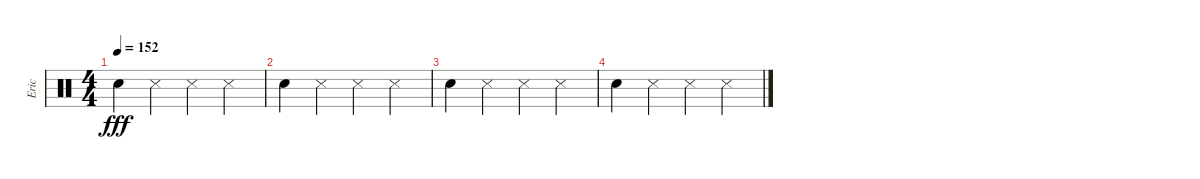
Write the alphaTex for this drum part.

\track ("Eric" "Eric") {instrument percussion}
\staff {score}
\articulation defaults
\ts (4 4)
\tempo 152
\clef neutral
\ks c "Metronome (bell)".4{dy fff} "Metronome (hit)".4 "Metronome (hit)".4 "Metronome (hit)".4
|
"Metronome (bell)".4 "Metronome (hit)".4 "Metronome (hit)".4 "Metronome (hit)".4 |
"Metronome (bell)".4 "Metronome (hit)".4 "Metronome (hit)".4 "Metronome (hit)".4 |
"Metronome (bell)".4 "Metronome (hit)".4 "Metronome (hit)".4 "Metronome (hit)".4
